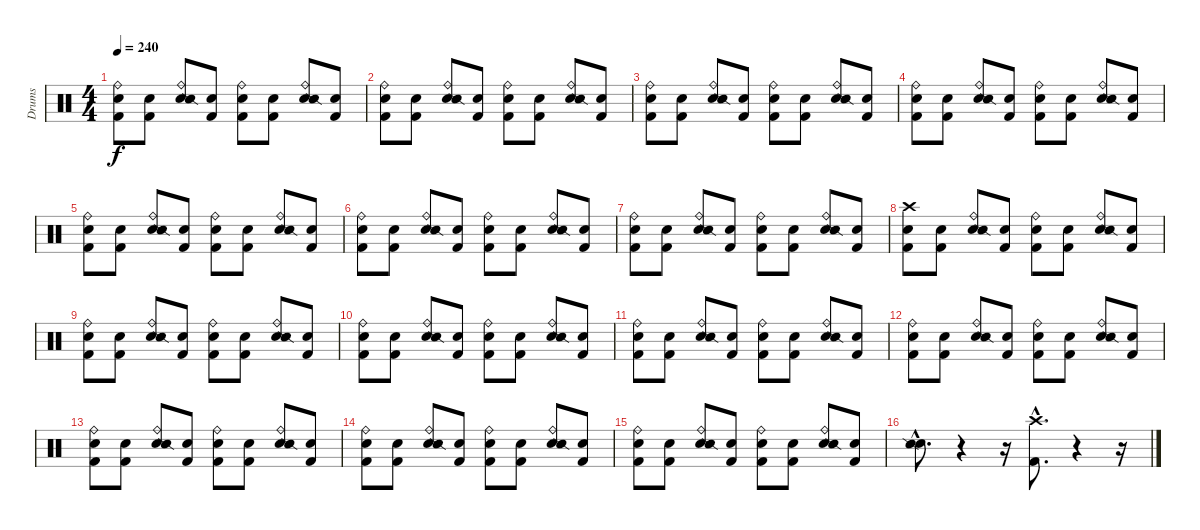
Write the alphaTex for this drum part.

\track ("Drums" "Drums") {instrument percussion}
\staff {score}
\articulation defaults
\ts (4 4)
\tempo 240
\clef neutral
\ks c
("Snare (hit)" "Kick (hit) 2" "Ride (bell)").8{dy f} ("Snare (hit)" "Kick (hit) 2").8 ("Snare (hit)" "Ride (bell)" "Snare (side stick) 2").8 ("Snare (hit)" "Kick (hit) 2").8 ("Snare (hit)" "Kick (hit) 2" "Ride (bell)").8 ("Snare (hit)" "Kick (hit) 2").8 ("Snare (hit)" "Ride (bell)" "Snare (side stick) 2").8 ("Snare (hit)" "Kick (hit) 2").8 |
("Snare (hit)" "Kick (hit) 2" "Ride (bell)").8 ("Snare (hit)" "Kick (hit) 2").8 ("Snare (hit)" "Ride (bell)" "Snare (side stick) 2").8 ("Snare (hit)" "Kick (hit) 2").8 ("Snare (hit)" "Kick (hit) 2" "Ride (bell)").8 ("Snare (hit)" "Kick (hit) 2").8 ("Snare (hit)" "Ride (bell)" "Snare (side stick) 2").8 ("Snare (hit)" "Kick (hit) 2").8 |
("Snare (hit)" "Kick (hit) 2" "Ride (bell)").8 ("Snare (hit)" "Kick (hit) 2").8 ("Snare (hit)" "Ride (bell)" "Snare (side stick) 2").8 ("Snare (hit)" "Kick (hit) 2").8 ("Snare (hit)" "Kick (hit) 2" "Ride (bell)").8 ("Snare (hit)" "Kick (hit) 2").8 ("Snare (hit)" "Ride (bell)" "Snare (side stick) 2").8 ("Snare (hit)" "Kick (hit) 2").8 |
("Snare (hit)" "Kick (hit) 2" "Ride (bell)").8 ("Snare (hit)" "Kick (hit) 2").8 ("Snare (hit)" "Ride (bell)" "Snare (side stick) 2").8 ("Snare (hit)" "Kick (hit) 2").8 ("Snare (hit)" "Kick (hit) 2" "Ride (bell)").8 ("Snare (hit)" "Kick (hit) 2").8 ("Snare (hit)" "Ride (bell)" "Snare (side stick) 2").8 ("Snare (hit)" "Kick (hit) 2").8 |
("Snare (hit)" "Kick (hit) 2" "Ride (bell)").8 ("Snare (hit)" "Kick (hit) 2").8 ("Snare (hit)" "Ride (bell)" "Snare (side stick) 2").8 ("Snare (hit)" "Kick (hit) 2").8 ("Snare (hit)" "Kick (hit) 2" "Ride (bell)").8 ("Snare (hit)" "Kick (hit) 2").8 ("Snare (hit)" "Ride (bell)" "Snare (side stick) 2").8 ("Snare (hit)" "Kick (hit) 2").8 |
("Snare (hit)" "Kick (hit) 2" "Ride (bell)").8 ("Snare (hit)" "Kick (hit) 2").8 ("Snare (hit)" "Ride (bell)" "Snare (side stick) 2").8 ("Snare (hit)" "Kick (hit) 2").8 ("Snare (hit)" "Kick (hit) 2" "Ride (bell)").8 ("Snare (hit)" "Kick (hit) 2").8 ("Snare (hit)" "Ride (bell)" "Snare (side stick) 2").8 ("Snare (hit)" "Kick (hit) 2").8 |
("Snare (hit)" "Kick (hit) 2" "Ride (bell)").8 ("Snare (hit)" "Kick (hit) 2").8 ("Snare (hit)" "Ride (bell)" "Snare (side stick) 2").8 ("Snare (hit)" "Kick (hit) 2").8 ("Snare (hit)" "Kick (hit) 2" "Ride (bell)").8 ("Snare (hit)" "Kick (hit) 2").8 ("Snare (hit)" "Ride (bell)" "Snare (side stick) 2").8 ("Snare (hit)" "Kick (hit) 2").8 |
("Snare (hit)" "Kick (hit) 2" "Crash high (hit)").8 ("Snare (hit)" "Kick (hit) 2").8 ("Snare (hit)" "Ride (bell)" "Snare (side stick) 2").8 ("Snare (hit)" "Kick (hit) 2").8 ("Snare (hit)" "Kick (hit) 2" "Ride (bell)").8 ("Snare (hit)" "Kick (hit) 2").8 ("Snare (hit)" "Ride (bell)" "Snare (side stick) 2").8 ("Snare (hit)" "Kick (hit) 2").8 |
("Snare (hit)" "Kick (hit) 2" "Ride (bell)").8 ("Snare (hit)" "Kick (hit) 2").8 ("Snare (hit)" "Ride (bell)" "Snare (side stick) 2").8 ("Snare (hit)" "Kick (hit) 2").8 ("Snare (hit)" "Kick (hit) 2" "Ride (bell)").8 ("Snare (hit)" "Kick (hit) 2").8 ("Snare (hit)" "Ride (bell)" "Snare (side stick) 2").8 ("Snare (hit)" "Kick (hit) 2").8 |
("Snare (hit)" "Kick (hit) 2" "Ride (bell)").8 ("Snare (hit)" "Kick (hit) 2").8 ("Snare (hit)" "Ride (bell)" "Snare (side stick) 2").8 ("Snare (hit)" "Kick (hit) 2").8 ("Snare (hit)" "Kick (hit) 2" "Ride (bell)").8 ("Snare (hit)" "Kick (hit) 2").8 ("Snare (hit)" "Ride (bell)" "Snare (side stick) 2").8 ("Snare (hit)" "Kick (hit) 2").8 |
("Snare (hit)" "Kick (hit) 2" "Ride (bell)").8 ("Snare (hit)" "Kick (hit) 2").8 ("Snare (hit)" "Ride (bell)" "Snare (side stick) 2").8 ("Snare (hit)" "Kick (hit) 2").8 ("Snare (hit)" "Kick (hit) 2" "Ride (bell)").8 ("Snare (hit)" "Kick (hit) 2").8 ("Snare (hit)" "Ride (bell)" "Snare (side stick) 2").8 ("Snare (hit)" "Kick (hit) 2").8 |
("Snare (hit)" "Kick (hit) 2" "Ride (bell)").8 ("Snare (hit)" "Kick (hit) 2").8 ("Snare (hit)" "Ride (bell)" "Snare (side stick) 2").8 ("Snare (hit)" "Kick (hit) 2").8 ("Snare (hit)" "Kick (hit) 2" "Ride (bell)").8 ("Snare (hit)" "Kick (hit) 2").8 ("Snare (hit)" "Ride (bell)" "Snare (side stick) 2").8 ("Snare (hit)" "Kick (hit) 2").8 |
("Snare (hit)" "Kick (hit) 2" "Ride (bell)").8 ("Snare (hit)" "Kick (hit) 2").8 ("Snare (hit)" "Ride (bell)" "Snare (side stick) 2").8 ("Snare (hit)" "Kick (hit) 2").8 ("Snare (hit)" "Kick (hit) 2" "Ride (bell)").8 ("Snare (hit)" "Kick (hit) 2").8 ("Snare (hit)" "Ride (bell)" "Snare (side stick) 2").8 ("Snare (hit)" "Kick (hit) 2").8 |
("Snare (hit)" "Kick (hit) 2" "Ride (bell)").8 ("Snare (hit)" "Kick (hit) 2").8 ("Snare (hit)" "Ride (bell)" "Snare (side stick) 2").8 ("Snare (hit)" "Kick (hit) 2").8 ("Snare (hit)" "Kick (hit) 2" "Ride (bell)").8 ("Snare (hit)" "Kick (hit) 2").8 ("Snare (hit)" "Ride (bell)" "Snare (side stick) 2").8 ("Snare (hit)" "Kick (hit) 2").8 |
("Snare (hit)" "Kick (hit) 2" "Ride (bell)").8 ("Snare (hit)" "Kick (hit) 2").8 ("Snare (hit)" "Ride (bell)" "Snare (side stick) 2").8 ("Snare (hit)" "Kick (hit) 2").8 ("Snare (hit)" "Kick (hit) 2" "Ride (bell)").8 ("Snare (hit)" "Kick (hit) 2").8 ("Snare (hit)" "Ride (bell)" "Snare (side stick) 2").8 ("Snare (hit)" "Kick (hit) 2").8 |
("Snare (hit)"{hac} "Snare (side stick) 2"{hac}).8{d} r.4 r.16 ("Kick (hit) 2"{hac} "Crash high (hit)"{hac}).8{d} r.4 r.16
